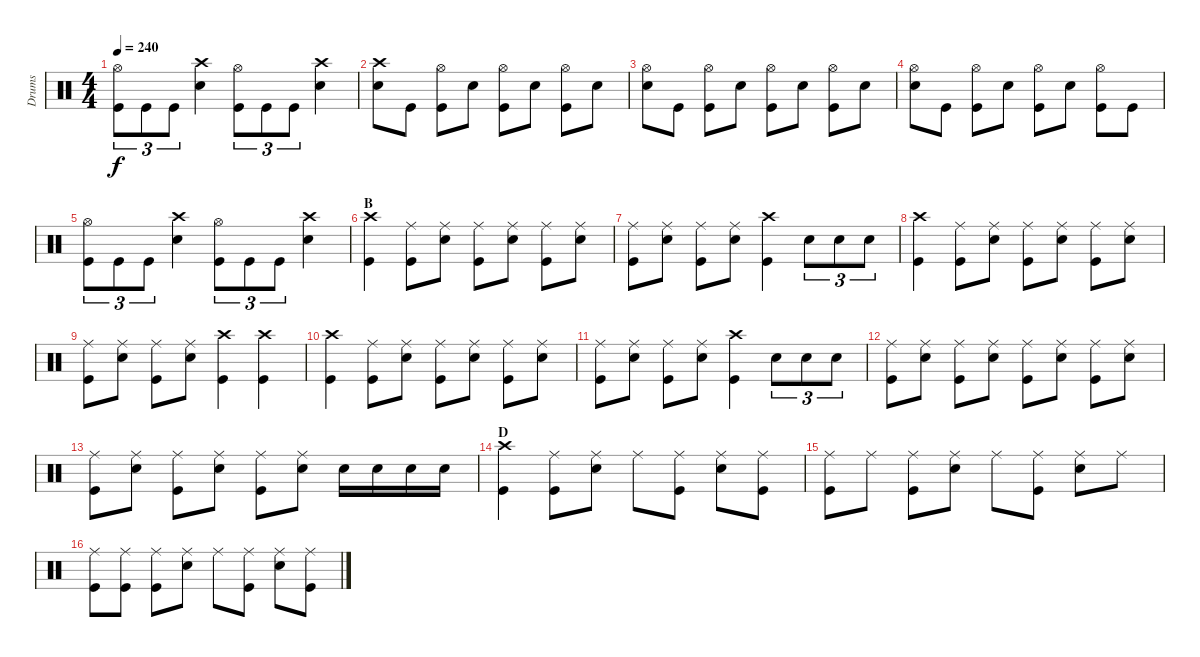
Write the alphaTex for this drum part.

\track ("Drums" "Drums") {instrument percussion}
\staff {score}
\articulation defaults
\ts (4 4)
\tempo 240
\clef neutral
\ks c
("Hi-Hat (open)" "Kick (hit)").8{tu (3 2) dy f} "Kick (hit)".8{tu (3 2)} "Kick (hit)".8{tu (3 2)} ("Crash high (hit)" "Snare (hit) 2").4 ("Hi-Hat (open)" "Kick (hit)").8{tu (3 2)} "Kick (hit)".8{tu (3 2)} "Kick (hit)".8{tu (3 2)} ("Crash high (hit)" "Snare (hit) 2").4 |
("Crash high (hit)" "Snare (hit) 2").8 "Kick (hit)".8 ("Hi-Hat (open)" "Kick (hit)").8 "Snare (hit) 2".8 ("Hi-Hat (open)" "Kick (hit)").8 "Snare (hit) 2".8 ("Hi-Hat (open)" "Kick (hit)").8 "Snare (hit) 2".8 |
("Hi-Hat (open)" "Snare (hit) 2").8 "Kick (hit)".8 ("Hi-Hat (open)" "Kick (hit)").8 "Snare (hit) 2".8 ("Hi-Hat (open)" "Kick (hit)").8 "Snare (hit) 2".8 ("Hi-Hat (open)" "Kick (hit)").8 "Snare (hit) 2".8 |
("Hi-Hat (open)" "Snare (hit) 2").8 "Kick (hit)".8 ("Hi-Hat (open)" "Kick (hit)").8 "Snare (hit) 2".8 ("Hi-Hat (open)" "Kick (hit)").8 "Snare (hit) 2".8 ("Hi-Hat (open)" "Kick (hit)").8 "Kick (hit)".8 |
("Hi-Hat (open)" "Kick (hit)").8{tu (3 2)} "Kick (hit)".8{tu (3 2)} "Kick (hit)".8{tu (3 2)} ("Crash high (hit)" "Snare (hit) 2").4 ("Hi-Hat (open)" "Kick (hit)").8{tu (3 2)} "Kick (hit)".8{tu (3 2)} "Kick (hit)".8{tu (3 2)} ("Crash high (hit)" "Snare (hit) 2").4 |
\section ("" "B")
("Crash high (hit)" "Kick (hit)").4 ("Ride (middle)" "Kick (hit)").8 ("Ride (middle)" "Snare (hit) 2").8 ("Ride (middle)" "Kick (hit)").8 ("Ride (middle)" "Snare (hit) 2").8 ("Ride (middle)" "Kick (hit)").8 ("Ride (middle)" "Snare (hit) 2").8 |
("Ride (middle)" "Kick (hit)").8 ("Ride (middle)" "Snare (hit) 2").8 ("Ride (middle)" "Kick (hit)").8 ("Ride (middle)" "Snare (hit) 2").8 ("Crash high (hit)" "Kick (hit)").4 "Snare (hit) 2".8{tu (3 2)} "Snare (hit) 2".8{tu (3 2)} "Snare (hit) 2".8{tu (3 2)} |
("Crash high (hit)" "Kick (hit)").4 ("Ride (middle)" "Kick (hit)").8 ("Ride (middle)" "Snare (hit) 2").8 ("Ride (middle)" "Kick (hit)").8 ("Ride (middle)" "Snare (hit) 2").8 ("Ride (middle)" "Kick (hit)").8 ("Ride (middle)" "Snare (hit) 2").8 |
("Ride (middle)" "Kick (hit)").8 ("Ride (middle)" "Snare (hit) 2").8 ("Ride (middle)" "Kick (hit)").8 ("Ride (middle)" "Snare (hit) 2").8 ("Crash high (hit)" "Kick (hit)").4 ("Crash high (hit)" "Kick (hit)").4 |
("Crash high (hit)" "Kick (hit)").4 ("Ride (middle)" "Kick (hit)").8 ("Ride (middle)" "Snare (hit) 2").8 ("Ride (middle)" "Kick (hit)").8 ("Ride (middle)" "Snare (hit) 2").8 ("Ride (middle)" "Kick (hit)").8 ("Ride (middle)" "Snare (hit) 2").8 |
("Ride (middle)" "Kick (hit)").8 ("Ride (middle)" "Snare (hit) 2").8 ("Ride (middle)" "Kick (hit)").8 ("Ride (middle)" "Snare (hit) 2").8 ("Crash high (hit)" "Kick (hit)").4 "Snare (hit) 2".8{tu (3 2)} "Snare (hit) 2".8{tu (3 2)} "Snare (hit) 2".8{tu (3 2)} |
("Ride (middle)" "Kick (hit)").8 ("Ride (middle)" "Snare (hit) 2").8 ("Ride (middle)" "Kick (hit)").8 ("Ride (middle)" "Snare (hit) 2").8 ("Ride (middle)" "Kick (hit)").8 ("Ride (middle)" "Snare (hit) 2").8 ("Ride (middle)" "Kick (hit)").8 ("Ride (middle)" "Snare (hit) 2").8 |
("Ride (middle)" "Kick (hit)").8 ("Ride (middle)" "Snare (hit) 2").8 ("Ride (middle)" "Kick (hit)").8 ("Ride (middle)" "Snare (hit) 2").8 ("Ride (middle)" "Kick (hit)").8 ("Ride (middle)" "Snare (hit) 2").8 "Snare (hit) 2".16 "Snare (hit) 2".16 "Snare (hit) 2".16 "Snare (hit) 2".16 |
\section ("" "D")
("Crash high (hit)" "Kick (hit)").4 ("Ride (middle)" "Kick (hit)").8 ("Ride (middle)" "Snare (hit) 2").8 "Ride (middle)".8 ("Ride (middle)" "Kick (hit)").8 ("Ride (middle)" "Snare (hit) 2").8 ("Ride (middle)" "Kick (hit)").8 |
("Ride (middle)" "Kick (hit)").8 "Ride (middle)".8 ("Ride (middle)" "Kick (hit)").8 ("Ride (middle)" "Snare (hit) 2").8 "Ride (middle)".8 ("Ride (middle)" "Kick (hit)").8 ("Ride (middle)" "Snare (hit) 2").8 "Ride (middle)".8 |
("Ride (middle)" "Kick (hit)").8 ("Ride (middle)" "Kick (hit)").8 ("Ride (middle)" "Kick (hit)").8 ("Ride (middle)" "Snare (hit) 2").8 "Ride (middle)".8 ("Ride (middle)" "Kick (hit)").8 ("Ride (middle)" "Snare (hit) 2").8 ("Ride (middle)" "Kick (hit)").8
